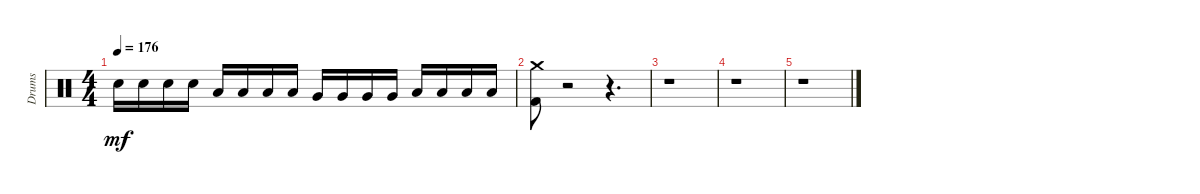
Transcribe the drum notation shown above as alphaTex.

\track ("Drums" "Drums") {instrument percussion}
\staff {score}
\articulation defaults
\ts (4 4)
\tempo 176
\clef neutral
\ks aminor "Snare (hit) 2".16{dy mf} "Snare (hit) 2".16 "Snare (hit) 2".16 "Snare (hit) 2".16 "Low Tom (hit)".16 "Low Tom (hit)".16 "Low Tom (hit)".16 "Low Tom (hit)".16 "Very Low Tom (hit)".16 "Very Low Tom (hit)".16 "Very Low Tom (hit)".16 "Very Low Tom (hit)".16 "Low Floor Tom (hit)".16 "Low Floor Tom (hit)".16 "Low Floor Tom (hit)".16 "Low Floor Tom (hit)".16
|
("Kick (hit) 2" "Crash medium (hit)").8 r.2 r.4{d} |
r.1 |
r.1 |
r.1
